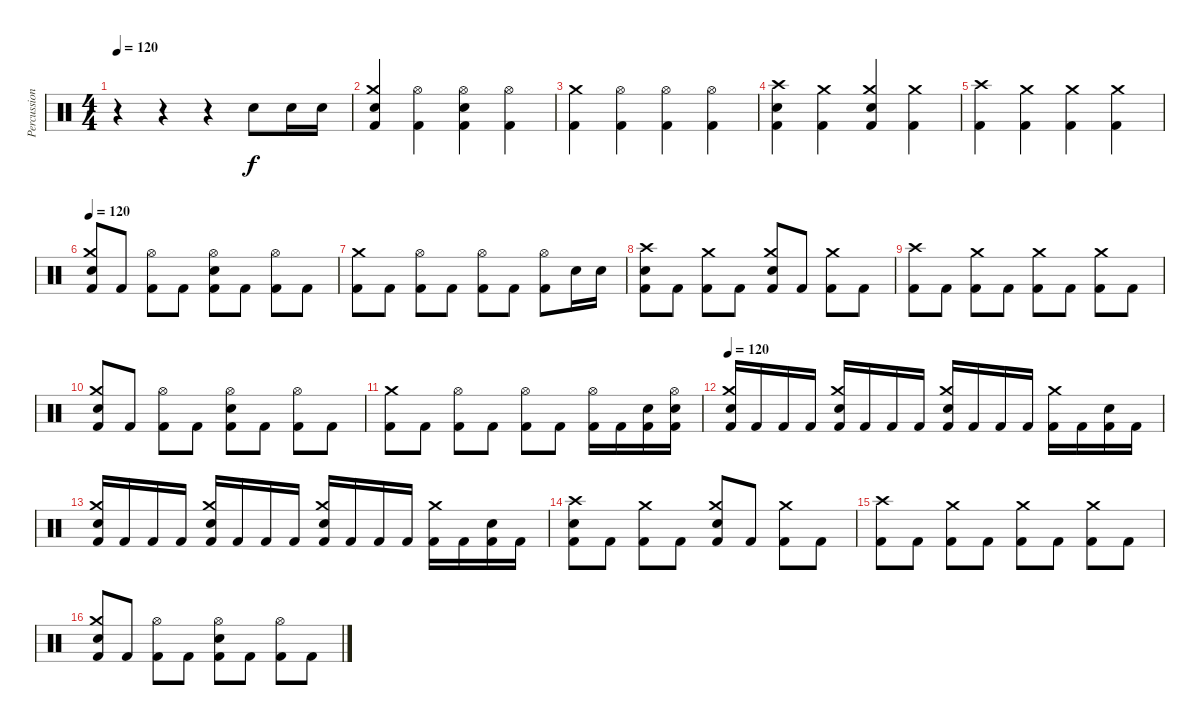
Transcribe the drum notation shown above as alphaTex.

\track ("Percussion" "Percussion") {instrument percussion}
\staff {score}
\articulation defaults
\ts (4 4)
\tempo 120
\clef neutral
\ks c
r.4{dy f} r.4 r.4 "Snare (hit) 2".8 "Snare (hit) 2".16 "Snare (hit) 2".16 |
("Crash medium (hit)" "Snare (hit) 2" "Kick (hit) 2").4 ("Hi-Hat (open)" "Kick (hit) 2").4 ("Hi-Hat (open)" "Snare (hit) 2" "Kick (hit) 2").4 ("Hi-Hat (open)" "Kick (hit) 2").4 |
("Crash medium (hit)" "Kick (hit) 2").4 ("Hi-Hat (open)" "Kick (hit) 2").4 ("Hi-Hat (open)" "Kick (hit) 2").4 ("Hi-Hat (open)" "Kick (hit) 2").4 |
("Crash high (hit)" "Snare (hit) 2" "Kick (hit) 2").4 ("Crash medium (hit)" "Kick (hit) 2").4 ("Crash medium (hit)" "Snare (hit) 2" "Kick (hit) 2").4 ("Crash medium (hit)" "Kick (hit) 2").4 |
("Crash high (hit)" "Kick (hit) 2").4 ("Crash medium (hit)" "Kick (hit) 2").4 ("Crash medium (hit)" "Kick (hit) 2").4 ("Crash medium (hit)" "Kick (hit) 2").4 |
\tempo 120
("Crash medium (hit)" "Snare (hit) 2" "Kick (hit) 2").8 "Kick (hit) 2".8 ("Hi-Hat (open)" "Kick (hit) 2").8 "Kick (hit) 2".8 ("Hi-Hat (open)" "Snare (hit) 2" "Kick (hit) 2").8 "Kick (hit) 2".8 ("Hi-Hat (open)" "Kick (hit) 2").8 "Kick (hit) 2".8 |
("Crash medium (hit)" "Kick (hit) 2").8 "Kick (hit) 2".8 ("Hi-Hat (open)" "Kick (hit) 2").8 "Kick (hit) 2".8 ("Hi-Hat (open)" "Kick (hit) 2").8 "Kick (hit) 2".8 ("Hi-Hat (open)" "Kick (hit) 2").8 "Snare (hit) 2".16 "Snare (hit) 2".16 |
("Crash high (hit)" "Snare (hit) 2" "Kick (hit) 2").8 "Kick (hit) 2".8 ("Crash medium (hit)" "Kick (hit) 2").8 "Kick (hit) 2".8 ("Crash medium (hit)" "Snare (hit) 2" "Kick (hit) 2").8 "Kick (hit) 2".8 ("Crash medium (hit)" "Kick (hit) 2").8 "Kick (hit) 2".8 |
("Crash high (hit)" "Kick (hit) 2").8 "Kick (hit) 2".8 ("Crash medium (hit)" "Kick (hit) 2").8 "Kick (hit) 2".8 ("Crash medium (hit)" "Kick (hit) 2").8 "Kick (hit) 2".8 ("Crash medium (hit)" "Kick (hit) 2").8 "Kick (hit) 2".8 |
("Crash medium (hit)" "Snare (hit) 2" "Kick (hit) 2").8 "Kick (hit) 2".8 ("Hi-Hat (open)" "Kick (hit) 2").8 "Kick (hit) 2".8 ("Hi-Hat (open)" "Snare (hit) 2" "Kick (hit) 2").8 "Kick (hit) 2".8 ("Hi-Hat (open)" "Kick (hit) 2").8 "Kick (hit) 2".8 |
("Crash medium (hit)" "Kick (hit) 2").8 "Kick (hit) 2".8 ("Hi-Hat (open)" "Kick (hit) 2").8 "Kick (hit) 2".8 ("Hi-Hat (open)" "Kick (hit) 2").8 "Kick (hit) 2".8 ("Hi-Hat (open)" "Kick (hit) 2").16 "Kick (hit) 2".16 ("Snare (hit) 2" "Kick (hit) 2").16 ("Hi-Hat (open)" "Snare (hit) 2" "Kick (hit) 2").16 |
\tempo 120
("Crash medium (hit)" "Snare (hit) 2" "Kick (hit) 2").16 "Kick (hit) 2".16 "Kick (hit) 2".16 "Kick (hit) 2".16 ("Crash medium (hit)" "Snare (hit) 2" "Kick (hit) 2").16 "Kick (hit) 2".16 "Kick (hit) 2".16 "Kick (hit) 2".16 ("Crash medium (hit)" "Snare (hit) 2" "Kick (hit) 2").16 "Kick (hit) 2".16 "Kick (hit) 2".16 "Kick (hit) 2".16 ("Crash medium (hit)" "Kick (hit) 2").16 "Kick (hit) 2".16 ("Snare (hit) 2" "Kick (hit) 2").16 "Kick (hit) 2".16 |
("Crash medium (hit)" "Snare (hit) 2" "Kick (hit) 2").16 "Kick (hit) 2".16 "Kick (hit) 2".16 "Kick (hit) 2".16 ("Crash medium (hit)" "Snare (hit) 2" "Kick (hit) 2").16 "Kick (hit) 2".16 "Kick (hit) 2".16 "Kick (hit) 2".16 ("Crash medium (hit)" "Snare (hit) 2" "Kick (hit) 2").16 "Kick (hit) 2".16 "Kick (hit) 2".16 "Kick (hit) 2".16 ("Crash medium (hit)" "Kick (hit) 2").16 "Kick (hit) 2".16 ("Snare (hit) 2" "Kick (hit) 2").16 "Kick (hit) 2".16 |
("Crash high (hit)" "Snare (hit) 2" "Kick (hit) 2").8 "Kick (hit) 2".8 ("Crash medium (hit)" "Kick (hit) 2").8 "Kick (hit) 2".8 ("Crash medium (hit)" "Snare (hit) 2" "Kick (hit) 2").8 "Kick (hit) 2".8 ("Crash medium (hit)" "Kick (hit) 2").8 "Kick (hit) 2".8 |
("Crash high (hit)" "Kick (hit) 2").8 "Kick (hit) 2".8 ("Crash medium (hit)" "Kick (hit) 2").8 "Kick (hit) 2".8 ("Crash medium (hit)" "Kick (hit) 2").8 "Kick (hit) 2".8 ("Crash medium (hit)" "Kick (hit) 2").8 "Kick (hit) 2".8 |
("Crash medium (hit)" "Snare (hit) 2" "Kick (hit) 2").8 "Kick (hit) 2".8 ("Hi-Hat (open)" "Kick (hit) 2").8 "Kick (hit) 2".8 ("Hi-Hat (open)" "Snare (hit) 2" "Kick (hit) 2").8 "Kick (hit) 2".8 ("Hi-Hat (open)" "Kick (hit) 2").8 "Kick (hit) 2".8
